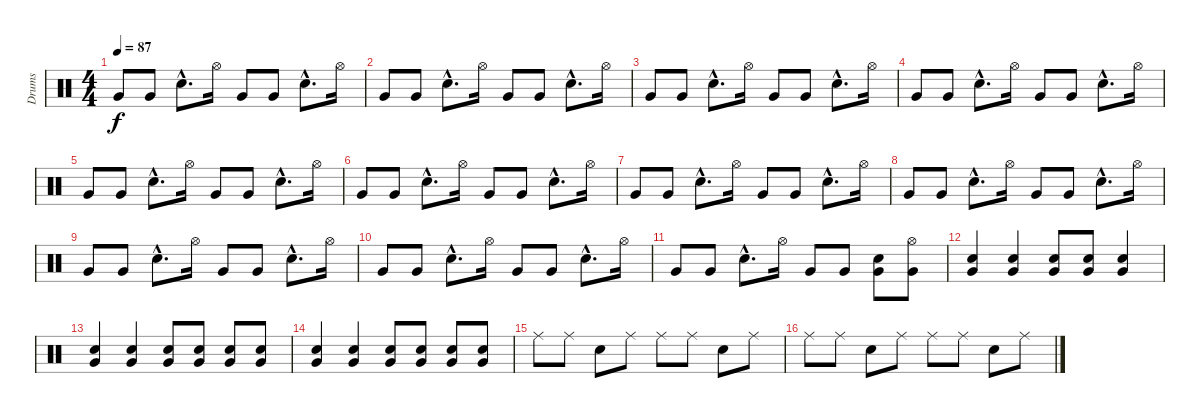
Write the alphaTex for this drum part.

\track ("Drums" "Drums") {instrument percussion}
\staff {score}
\articulation defaults
\ts (4 4)
\tempo 87
\clef neutral
\ks c "Very Low Tom (hit)".8{dy f} "Very Low Tom (hit)".8 "Snare (hit) 2"{hac}.8{d} "Hi-Hat (open)".16 "Very Low Tom (hit)".8 "Very Low Tom (hit)".8 "Snare (hit) 2"{hac}.8{d} "Hi-Hat (open)".16
|
"Very Low Tom (hit)".8 "Very Low Tom (hit)".8 "Snare (hit) 2"{hac}.8{d} "Hi-Hat (open)".16 "Very Low Tom (hit)".8 "Very Low Tom (hit)".8 "Snare (hit) 2"{hac}.8{d} "Hi-Hat (open)".16 |
"Very Low Tom (hit)".8 "Very Low Tom (hit)".8 "Snare (hit) 2"{hac}.8{d} "Hi-Hat (open)".16 "Very Low Tom (hit)".8 "Very Low Tom (hit)".8 "Snare (hit) 2"{hac}.8{d} "Hi-Hat (open)".16 |
"Very Low Tom (hit)".8 "Very Low Tom (hit)".8 "Snare (hit) 2"{hac}.8{d} "Hi-Hat (open)".16 "Very Low Tom (hit)".8 "Very Low Tom (hit)".8 "Snare (hit) 2"{hac}.8{d} "Hi-Hat (open)".16 |
"Very Low Tom (hit)".8 "Very Low Tom (hit)".8 "Snare (hit) 2"{hac}.8{d} "Hi-Hat (open)".16 "Very Low Tom (hit)".8 "Very Low Tom (hit)".8 "Snare (hit) 2"{hac}.8{d} "Hi-Hat (open)".16 |
"Very Low Tom (hit)".8 "Very Low Tom (hit)".8 "Snare (hit) 2"{hac}.8{d} "Hi-Hat (open)".16 "Very Low Tom (hit)".8 "Very Low Tom (hit)".8 "Snare (hit) 2"{hac}.8{d} "Hi-Hat (open)".16 |
"Very Low Tom (hit)".8 "Very Low Tom (hit)".8 "Snare (hit) 2"{hac}.8{d} "Hi-Hat (open)".16 "Very Low Tom (hit)".8 "Very Low Tom (hit)".8 "Snare (hit) 2"{hac}.8{d} "Hi-Hat (open)".16 |
"Very Low Tom (hit)".8 "Very Low Tom (hit)".8 "Snare (hit) 2"{hac}.8{d} "Hi-Hat (open)".16 "Very Low Tom (hit)".8 "Very Low Tom (hit)".8 "Snare (hit) 2"{hac}.8{d} "Hi-Hat (open)".16 |
"Very Low Tom (hit)".8 "Very Low Tom (hit)".8 "Snare (hit) 2"{hac}.8{d} "Hi-Hat (open)".16 "Very Low Tom (hit)".8 "Very Low Tom (hit)".8 "Snare (hit) 2"{hac}.8{d} "Hi-Hat (open)".16 |
"Very Low Tom (hit)".8 "Very Low Tom (hit)".8 "Snare (hit) 2"{hac}.8{d} "Hi-Hat (open)".16 "Very Low Tom (hit)".8 "Very Low Tom (hit)".8 "Snare (hit) 2"{hac}.8{d} "Hi-Hat (open)".16 |
"Very Low Tom (hit)".8 "Very Low Tom (hit)".8 "Snare (hit) 2"{hac}.8{d} "Hi-Hat (open)".16 "Very Low Tom (hit)".8 "Very Low Tom (hit)".8 ("Snare (hit) 2" "Very Low Tom (hit)").8 ("Hi-Hat (open)" "Very Low Tom (hit)").8 |
("Snare (hit) 2" "Very Low Tom (hit)").4 ("Snare (hit) 2" "Very Low Tom (hit)").4 ("Snare (hit) 2" "Very Low Tom (hit)").8 ("Snare (hit) 2" "Very Low Tom (hit)").8 ("Snare (hit) 2" "Very Low Tom (hit)").4 |
("Snare (hit) 2" "Very Low Tom (hit)").4 ("Snare (hit) 2" "Very Low Tom (hit)").4 ("Snare (hit) 2" "Very Low Tom (hit)").8 ("Snare (hit) 2" "Very Low Tom (hit)").8 ("Snare (hit) 2" "Very Low Tom (hit)").8 ("Snare (hit) 2" "Very Low Tom (hit)").8 |
("Snare (hit) 2" "Very Low Tom (hit)").4 ("Snare (hit) 2" "Very Low Tom (hit)").4 ("Snare (hit) 2" "Very Low Tom (hit)").8 ("Snare (hit) 2" "Very Low Tom (hit)").8 ("Snare (hit) 2" "Very Low Tom (hit)").8 ("Snare (hit) 2" "Very Low Tom (hit)").8 |
"Ride (middle)".8 "Ride (middle)".8 "Electric Snare (hit)".8 "Ride (middle)".8 "Ride (middle)".8 "Ride (middle)".8 "Electric Snare (hit)".8 "Ride (middle)".8 |
"Ride (middle)".8 "Ride (middle)".8 "Electric Snare (hit)".8 "Ride (middle)".8 "Ride (middle)".8 "Ride (middle)".8 "Electric Snare (hit)".8 "Ride (middle)".8
